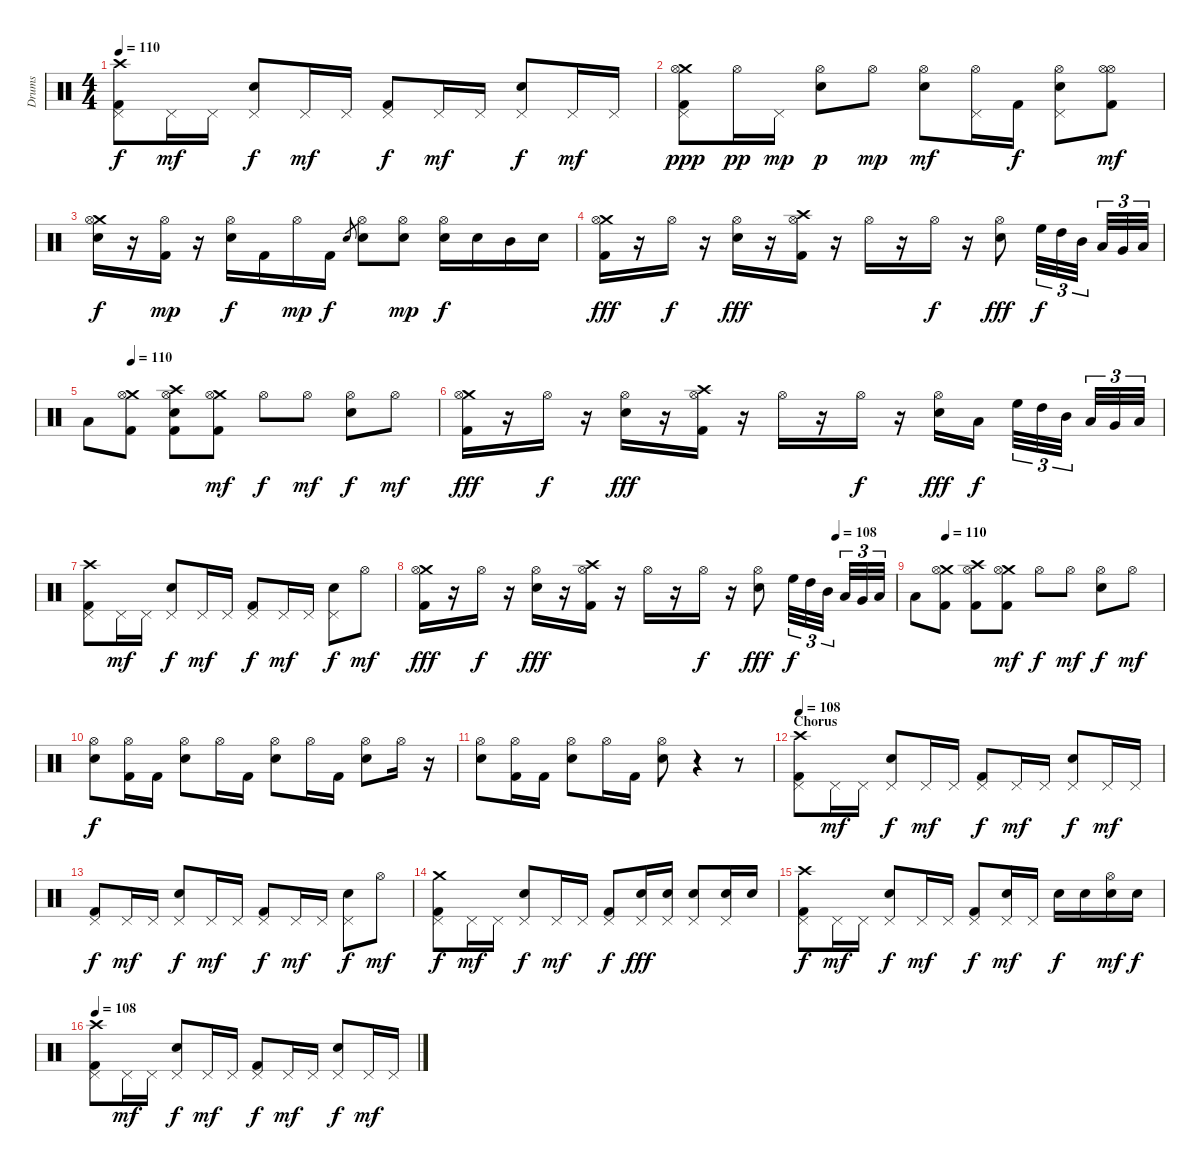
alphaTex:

\track ("Drums" "Drums") {instrument percussion}
\staff {score}
\articulation defaults
\ts (4 4)
\tempo 110
\clef neutral
\ks c
("Crash high (hit)" "Pedal Hi-Hat (hit)" "Kick (hit) 2").8{dy f} "Pedal Hi-Hat (hit)".16{dy mf} "Pedal Hi-Hat (hit)".16 ("Pedal Hi-Hat (hit)" "Snare (hit) 2").8{dy f} "Pedal Hi-Hat (hit)".16{dy mf} "Pedal Hi-Hat (hit)".16 ("Pedal Hi-Hat (hit)" "Kick (hit) 2").8{dy f} "Pedal Hi-Hat (hit)".16{dy mf} "Pedal Hi-Hat (hit)".16 ("Pedal Hi-Hat (hit)" "Snare (hit) 2").8{dy f} "Pedal Hi-Hat (hit)".16{dy mf} "Pedal Hi-Hat (hit)".16 |
("Crash medium (hit)" "Pedal Hi-Hat (hit)" "Hi-Hat (open)" "Kick (hit) 2").8{dy ppp} "Hi-Hat (open)".16{dy pp} "Pedal Hi-Hat (hit)".16{dy mp} ("Hi-Hat (open)" "Snare (hit) 2").8{dy p} "Hi-Hat (open)".8{dy mp} ("Hi-Hat (open)" "Snare (hit) 2").8{dy mf} ("Pedal Hi-Hat (hit)" "Hi-Hat (open)").16 "Kick (hit) 2".16{dy f} ("Pedal Hi-Hat (hit)" "Hi-Hat (open)" "Snare (hit) 2").8 ("Hi-Hat (open)" "Hi-Hat (open)" "Kick (hit) 2").8{dy mf} |
("Crash medium (hit)" "Hi-Hat (open)" "Snare (hit) 2").16{dy f} r.16 ("Hi-Hat (open)" "Kick (hit) 2").16{dy mp} r.16 ("Hi-Hat (open)" "Snare (hit) 2").16{dy f} "Kick (hit) 2".16 "Hi-Hat (open)".16{dy mp} "Kick (hit) 2".16{dy f} "Snare (hit) 2".8{gr} ("Hi-Hat (open)" "Snare (hit) 2").8 ("Hi-Hat (open)" "Snare (hit) 2").8{dy mp} ("Hi-Hat (open)" "Snare (hit) 2").16{dy f} "Snare (hit) 2".16 "Mid Tom (hit)".16 "Snare (hit) 2".16 |
("Crash medium (hit)" "Hi-Hat (open)" "Kick (hit) 2").16{dy fff} r.16 "Hi-Hat (open)".16{dy f} r.16 ("Hi-Hat (open)" "Snare (hit) 2").16{dy fff} r.16 ("Crash high (hit)" "Hi-Hat (open)" "Kick (hit) 2").16 r.16 "Hi-Hat (open)".16 r.16 "Hi-Hat (open)".16{dy f} r.16 ("Hi-Hat (open)" "Snare (hit) 2").8{dy fff} "High Floor Tom (hit)".32{tu (3 2) dy f} "High Tom (hit)".32{tu (3 2)} "Mid Tom (hit)".32{tu (3 2)} "Low Tom (hit)".32{tu (3 2)} "Very Low Tom (hit)".32{tu (3 2)} "Low Floor Tom (hit)".32{tu (3 2)} |
\tempo (110 0.125)
"Low Tom (hit)".8 ("Crash medium (hit)" "Hi-Hat (open)" "Kick (hit) 2").8 ("Crash high (hit)" "Hi-Hat (open)" "Snare (hit) 2" "Kick (hit) 2").8 ("Crash medium (hit)" "Hi-Hat (open)" "Kick (hit) 2").8{dy mf} "Hi-Hat (open)".8{dy f} "Hi-Hat (open)".8{dy mf} ("Hi-Hat (open)" "Snare (hit) 2").8{dy f} "Hi-Hat (open)".8{dy mf} |
("Crash medium (hit)" "Hi-Hat (open)" "Kick (hit) 2").16{dy fff} r.16 "Hi-Hat (open)".16{dy f} r.16 ("Hi-Hat (open)" "Snare (hit) 2").16{dy fff} r.16 ("Crash high (hit)" "Hi-Hat (open)" "Kick (hit) 2").16 r.16 "Hi-Hat (open)".16 r.16 "Hi-Hat (open)".16{dy f} r.16 ("Hi-Hat (open)" "Snare (hit) 2").16{dy fff} "Low Tom (hit)".16{dy f} "High Floor Tom (hit)".32{tu (3 2)} "High Tom (hit)".32{tu (3 2)} "Mid Tom (hit)".32{tu (3 2)} "Low Tom (hit)".32{tu (3 2)} "Very Low Tom (hit)".32{tu (3 2)} "Low Floor Tom (hit)".32{tu (3 2)} |
("Crash high (hit)" "Pedal Hi-Hat (hit)" "Kick (hit) 2").8 "Pedal Hi-Hat (hit)".16{dy mf} "Pedal Hi-Hat (hit)".16 ("Pedal Hi-Hat (hit)" "Snare (hit) 2").8{dy f} "Pedal Hi-Hat (hit)".16{dy mf} "Pedal Hi-Hat (hit)".16 ("Pedal Hi-Hat (hit)" "Kick (hit) 2").8{dy f} "Pedal Hi-Hat (hit)".16{dy mf} "Pedal Hi-Hat (hit)".16 ("Pedal Hi-Hat (hit)" "Snare (hit) 2").8{dy f} "Hi-Hat (open)".8{dy mf} |
\tempo (108 0.875)
("Crash medium (hit)" "Hi-Hat (open)" "Kick (hit) 2").16{dy fff} r.16 "Hi-Hat (open)".16{dy f} r.16 ("Hi-Hat (open)" "Snare (hit) 2").16{dy fff} r.16 ("Crash high (hit)" "Hi-Hat (open)" "Kick (hit) 2").16 r.16 "Hi-Hat (open)".16 r.16 "Hi-Hat (open)".16{dy f} r.16 ("Hi-Hat (open)" "Snare (hit) 2").8{dy fff} "High Floor Tom (hit)".32{tu (3 2) dy f} "High Tom (hit)".32{tu (3 2)} "Mid Tom (hit)".32{tu (3 2)} "Low Tom (hit)".32{tu (3 2)} "Very Low Tom (hit)".32{tu (3 2)} "Low Floor Tom (hit)".32{tu (3 2)} |
\tempo (108 0.125)
\tempo (110 0.125)
"Low Tom (hit)".8 ("Crash medium (hit)" "Hi-Hat (open)" "Kick (hit) 2").8 ("Crash high (hit)" "Hi-Hat (open)" "Kick (hit) 2").8 ("Crash medium (hit)" "Hi-Hat (open)" "Kick (hit) 2").8{dy mf} "Hi-Hat (open)".8{dy f} "Hi-Hat (open)".8{dy mf} ("Hi-Hat (open)" "Snare (hit) 2").8{dy f} "Hi-Hat (open)".8{dy mf} |
("Hi-Hat (open)" "Snare (hit) 2").8{dy f} ("Hi-Hat (open)" "Kick (hit) 2").16 "Kick (hit) 2".16 ("Hi-Hat (open)" "Snare (hit) 2").8 "Hi-Hat (open)".16 "Kick (hit) 2".16 ("Hi-Hat (open)" "Snare (hit) 2").8 "Hi-Hat (open)".16 "Kick (hit) 2".16 ("Hi-Hat (open)" "Snare (hit) 2").8 "Hi-Hat (open)".16 r.16 |
("Hi-Hat (open)" "Snare (hit) 2").8 ("Hi-Hat (open)" "Kick (hit) 2").16 "Kick (hit) 2".16 ("Hi-Hat (open)" "Snare (hit) 2").8 "Hi-Hat (open)".16 "Kick (hit) 2".16 ("Hi-Hat (open)" "Snare (hit) 2").8 r.4 r.8 |
\section ("" "Chorus")
\tempo 108
("Crash high (hit)" "Pedal Hi-Hat (hit)" "Kick (hit) 2").8 "Pedal Hi-Hat (hit)".16{dy mf} "Pedal Hi-Hat (hit)".16 ("Pedal Hi-Hat (hit)" "Snare (hit) 2").8{dy f} "Pedal Hi-Hat (hit)".16{dy mf} "Pedal Hi-Hat (hit)".16 ("Pedal Hi-Hat (hit)" "Kick (hit) 2").8{dy f} "Pedal Hi-Hat (hit)".16{dy mf} "Pedal Hi-Hat (hit)".16 ("Pedal Hi-Hat (hit)" "Snare (hit) 2").8{dy f} "Pedal Hi-Hat (hit)".16{dy mf} "Pedal Hi-Hat (hit)".16 |
("Pedal Hi-Hat (hit)" "Kick (hit) 2").8{dy f} "Pedal Hi-Hat (hit)".16{dy mf} "Pedal Hi-Hat (hit)".16 ("Pedal Hi-Hat (hit)" "Snare (hit) 2").8{dy f} "Pedal Hi-Hat (hit)".16{dy mf} "Pedal Hi-Hat (hit)".16 ("Pedal Hi-Hat (hit)" "Kick (hit) 2").8{dy f} "Pedal Hi-Hat (hit)".16{dy mf} "Pedal Hi-Hat (hit)".16 ("Pedal Hi-Hat (hit)" "Snare (hit) 2").8{dy f} "Hi-Hat (open)".8{dy mf} |
("Crash medium (hit)" "Pedal Hi-Hat (hit)" "Kick (hit) 2").8{dy f} "Pedal Hi-Hat (hit)".16{dy mf} "Pedal Hi-Hat (hit)".16 ("Pedal Hi-Hat (hit)" "Snare (hit) 2").8{dy f} "Pedal Hi-Hat (hit)".16{dy mf} "Pedal Hi-Hat (hit)".16 ("Pedal Hi-Hat (hit)" "Kick (hit) 2").8{dy f} ("Pedal Hi-Hat (hit)" "Snare (hit) 2").16{dy fff} ("Pedal Hi-Hat (hit)" "Snare (hit) 2").16 ("Pedal Hi-Hat (hit)" "Snare (hit) 2").8 ("Pedal Hi-Hat (hit)" "Snare (hit) 2").16 "Snare (hit) 2".16 |
("Crash high (hit)" "Pedal Hi-Hat (hit)" "Kick (hit) 2").8{dy f} "Pedal Hi-Hat (hit)".16{dy mf} "Pedal Hi-Hat (hit)".16 ("Pedal Hi-Hat (hit)" "Snare (hit) 2").8{dy f} "Pedal Hi-Hat (hit)".16{dy mf} "Pedal Hi-Hat (hit)".16 ("Pedal Hi-Hat (hit)" "Kick (hit) 2").8{dy f} ("Pedal Hi-Hat (hit)" "Snare (hit) 2").16{dy mf} "Pedal Hi-Hat (hit)".16 "Snare (hit) 2".16{dy f} "Snare (hit) 2".16 ("Hi-Hat (open)" "Snare (hit) 2").16{dy mf} "Snare (hit) 2".16{dy f} |
\tempo 108
("Crash high (hit)" "Pedal Hi-Hat (hit)" "Kick (hit) 2").8 "Pedal Hi-Hat (hit)".16{dy mf} "Pedal Hi-Hat (hit)".16 ("Pedal Hi-Hat (hit)" "Snare (hit) 2").8{dy f} "Pedal Hi-Hat (hit)".16{dy mf} "Pedal Hi-Hat (hit)".16 ("Pedal Hi-Hat (hit)" "Kick (hit) 2").8{dy f} "Pedal Hi-Hat (hit)".16{dy mf} "Pedal Hi-Hat (hit)".16 ("Pedal Hi-Hat (hit)" "Snare (hit) 2").8{dy f} "Pedal Hi-Hat (hit)".16{dy mf} "Pedal Hi-Hat (hit)".16
